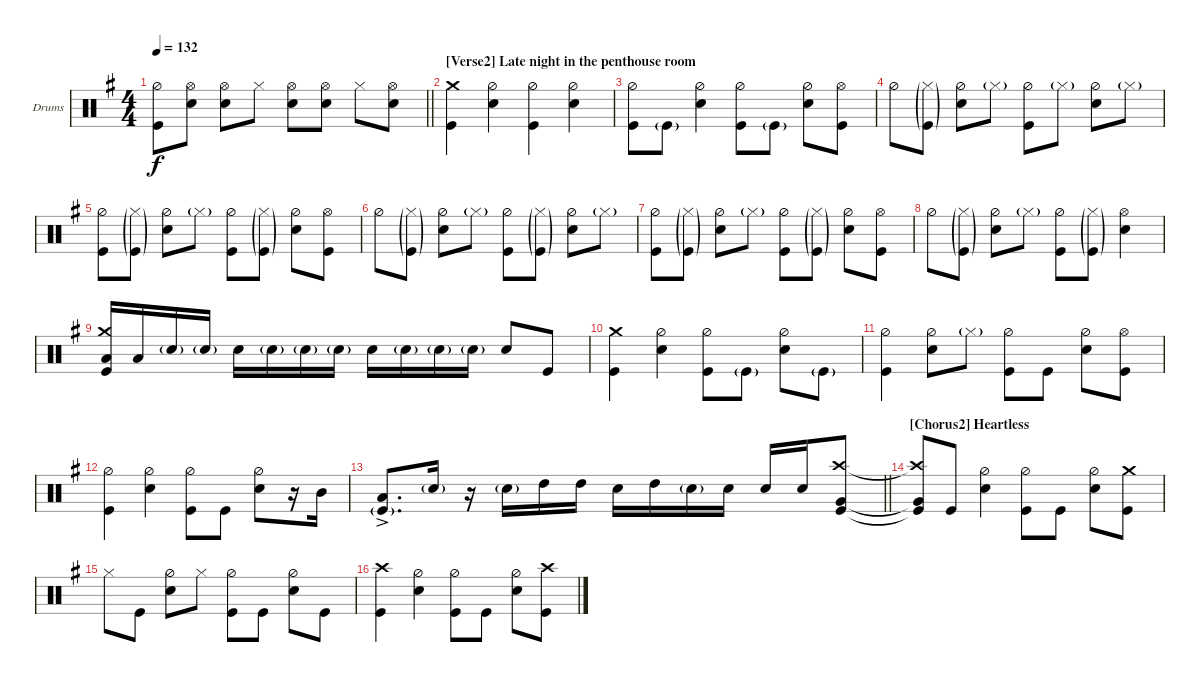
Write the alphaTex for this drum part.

\bracketExtendMode groupsimilarinstruments
\firstSystemTrackNameOrientation horizontal
\otherSystemsTrackNameOrientation horizontal
\track ("Drumkit" "Drums") {instrument percussion}
\staff {score}
\articulation defaults
\ts (4 4)
\tempo 132
\clef neutral
\scale
0.333333
\barLineRight lightlight
\ks g
("Hi-Hat (half)" "Kick (hit)").8{dy f} ("Snare (hit) 2" "Hi-Hat (open)").8 ("Snare (hit) 2" "Hi-Hat (open)").8 "Hi-Hat (closed)".8 ("Snare (hit) 2" "Hi-Hat (open)").8 ("Snare (hit) 2" "Hi-Hat (open)").8 "Hi-Hat (closed)".8 ("Snare (hit) 2" "Hi-Hat (open)").8 |
\section ("" "[Verse2] Late night in the penthouse room")
\scale
0.333333 ("Kick (hit)" "Crash medium (hit)").4 ("Hi-Hat (half)" "Snare (hit) 2").4 ("Hi-Hat (half)" "Kick (hit)").4 ("Hi-Hat (half)" "Snare (hit) 2").4 |
\scale
0.333333 ("Hi-Hat (half)" "Kick (hit)").8 "Kick (hit)"{g}.8 ("Hi-Hat (half)" "Snare (hit) 2").4 ("Hi-Hat (half)" "Kick (hit)").8 "Kick (hit)"{g}.8 ("Hi-Hat (half)" "Snare (hit) 2").8 ("Kick (hit)" "Hi-Hat (open)").8 |
\scale
0.333333 "Hi-Hat (half)".8 ("Kick (hit)"{g} "Hi-Hat (closed)"{g}).8 ("Hi-Hat (half)" "Snare (hit) 2").8 "Hi-Hat (closed)"{g}.8 ("Hi-Hat (half)" "Kick (hit)").8 "Hi-Hat (closed)"{g}.8 ("Hi-Hat (half)" "Snare (hit) 2").8 "Hi-Hat (closed)"{g}.8 |
\scale
0.333333 ("Hi-Hat (half)" "Kick (hit)").8 ("Kick (hit)"{g} "Hi-Hat (closed)"{g}).8 ("Hi-Hat (half)" "Snare (hit) 2").8 "Hi-Hat (closed)"{g}.8 ("Hi-Hat (half)" "Kick (hit)").8 ("Kick (hit)"{g} "Hi-Hat (closed)"{g}).8 ("Hi-Hat (half)" "Snare (hit) 2").8 ("Kick (hit)" "Hi-Hat (open)").8 |
\scale
0.333333 "Hi-Hat (half)".8 ("Kick (hit)"{g} "Hi-Hat (closed)"{g}).8 ("Hi-Hat (half)" "Snare (hit) 2").8 "Hi-Hat (closed)"{g}.8 ("Hi-Hat (half)" "Kick (hit)").8 ("Kick (hit)"{g} "Hi-Hat (closed)"{g}).8 ("Hi-Hat (half)" "Snare (hit) 2").8 "Hi-Hat (closed)"{g}.8 |
\scale
0.333333 ("Hi-Hat (half)" "Kick (hit)").8 ("Kick (hit)"{g} "Hi-Hat (closed)"{g}).8 ("Hi-Hat (half)" "Snare (hit) 2").8 "Hi-Hat (closed)"{g}.8 ("Hi-Hat (half)" "Kick (hit)").8 ("Kick (hit)"{g} "Hi-Hat (closed)"{g}).8 ("Hi-Hat (half)" "Snare (hit) 2").8 ("Kick (hit)" "Hi-Hat (open)").8 |
\scale
0.333333 "Hi-Hat (half)".8 ("Kick (hit)"{g} "Hi-Hat (closed)"{g}).8 ("Hi-Hat (half)" "Snare (hit) 2").8 "Hi-Hat (closed)"{g}.8 ("Hi-Hat (half)" "Kick (hit)").8 ("Kick (hit)"{g} "Hi-Hat (closed)"{g}).8 ("Hi-Hat (open)" "Snare (hit) 2").4 |
\scale
0.333333 ("Crash medium (hit)" "Kick (hit)" "Low Tom (hit)").16 "Low Tom (hit)".16 "Snare (hit) 2"{g}.16 "Snare (hit) 2"{g}.16 "Snare (hit) 2".16 "Snare (hit) 2"{g}.16 "Snare (hit) 2"{g}.16 "Snare (hit) 2"{g}.16 "Snare (hit) 2".16 "Snare (hit) 2"{g}.16 "Snare (hit) 2"{g}.16 "Snare (hit) 2"{g}.16 "Snare (hit) 2".8 "Kick (hit)".8 |
\scale
0.333333 ("Kick (hit)" "Crash medium (hit)").4 ("Hi-Hat (half)" "Snare (hit) 2").4 ("Hi-Hat (half)" "Kick (hit)").8 "Kick (hit)"{g}.8 ("Hi-Hat (half)" "Snare (hit) 2").8 "Kick (hit)"{g}.8 |
\scale
0.333333 ("Hi-Hat (half)" "Kick (hit)").4 ("Hi-Hat (half)" "Snare (hit) 2").8 "Hi-Hat (closed)"{g}.8 ("Hi-Hat (half)" "Kick (hit)").8 "Kick (hit)".8 ("Hi-Hat (half)" "Snare (hit) 2").8 ("Kick (hit)" "Hi-Hat (open)").8 |
\scale
0.333333 ("Hi-Hat (half)" "Kick (hit)").4 ("Hi-Hat (half)" "Snare (hit) 2").4 ("Hi-Hat (half)" "Kick (hit)").8 "Kick (hit)".8 ("Hi-Hat (half)" "Snare (hit) 2").8 r.16 "Mid Tom (hit)".16 |
\scale
0.333333
\barLineRight lightlight
("Kick (hit)"{g} "Low Tom (hit)"{ac}).8{d} "Snare (hit) 2"{g}.16 r.16 "Snare (hit) 2"{g}.16 "High Tom (hit)".16 "High Tom (hit)".16 "Snare (hit) 2".16 "High Tom (hit)".16 "Snare (hit) 2"{g}.16 "Snare (hit) 2".16 "Snare (hit) 2".16 "Snare (hit) 2".16 ("Kick (hit)" "Crash high (hit)" "Very Low Tom (hit)").8 |
\section ("" "[Chorus2] Heartless")
\scale
0.333333 ("Kick (hit)"{t} "Crash high (hit)"{t} "Very Low Tom (hit)"{t}).8 "Kick (hit)".8 ("Hi-Hat (half)" "Snare (hit) 2").4 ("Hi-Hat (half)" "Kick (hit)").8 "Kick (hit)".8 ("Hi-Hat (half)" "Snare (hit) 2").8 ("Kick (hit)" "Crash medium (hit)").8 |
\scale
0.333333 "Hi-Hat (closed)".8 "Kick (hit)".8 ("Hi-Hat (half)" "Snare (hit) 2").8 "Hi-Hat (closed)".8 ("Hi-Hat (half)" "Kick (hit)").8 "Kick (hit)".8 ("Hi-Hat (half)" "Snare (hit) 2").8 "Kick (hit)".8 |
\scale
0.333333 ("Kick (hit)" "Crash high (hit)").4 ("Hi-Hat (half)" "Snare (hit) 2").4 ("Hi-Hat (half)" "Kick (hit)").8 "Kick (hit)".8 ("Hi-Hat (half)" "Snare (hit) 2").8 ("Kick (hit)" "Crash high (hit)").8
